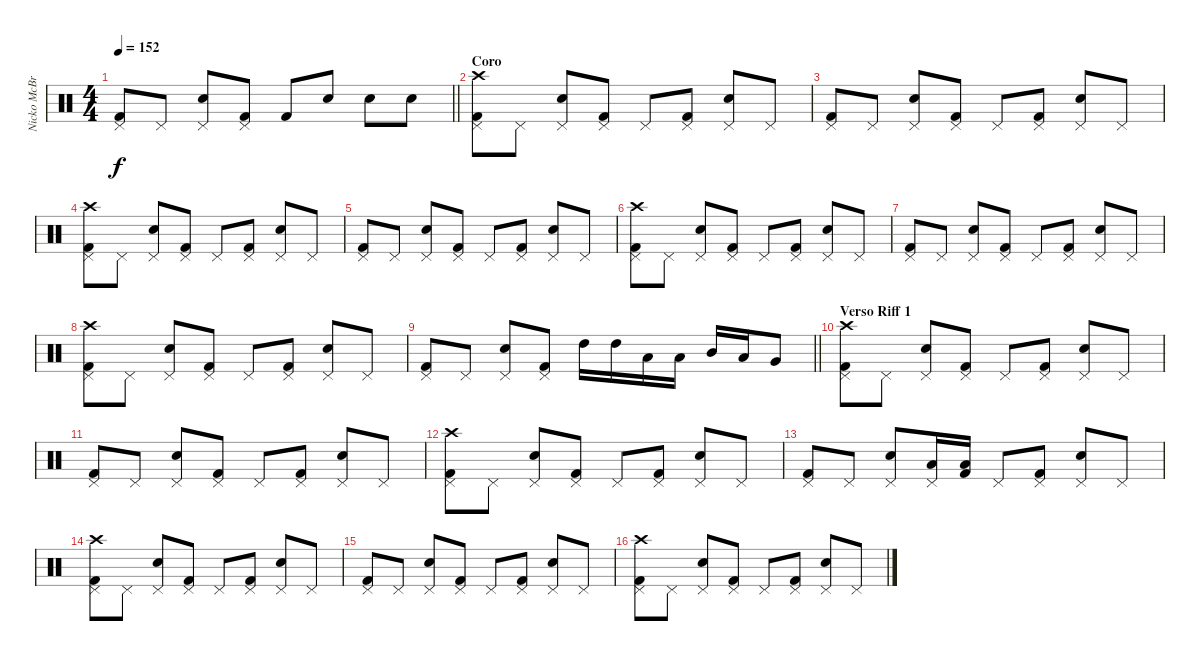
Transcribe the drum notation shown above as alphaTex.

\track ("Nicko McBrain" "Nicko McBr") {instrument percussion}
\staff {score}
\articulation defaults
\ts (4 4)
\tempo 152
\clef neutral
\barLineRight lightlight
\ks c
("Kick (hit) 2" "Pedal Hi-Hat (hit)").8{dy f} "Pedal Hi-Hat (hit)".8 ("Snare (hit) 2" "Pedal Hi-Hat (hit)").8 ("Kick (hit) 2" "Pedal Hi-Hat (hit)").8 "Kick (hit) 2".8 "Snare (hit) 2".8 "Snare (hit) 2".8 "Snare (hit) 2".8 |
\section ("" "Coro")
("Kick (hit) 2" "Pedal Hi-Hat (hit)" "Crash high (hit)").8 "Pedal Hi-Hat (hit)".8 ("Snare (hit) 2" "Pedal Hi-Hat (hit)").8 ("Kick (hit) 2" "Pedal Hi-Hat (hit)").8 "Pedal Hi-Hat (hit)".8 ("Kick (hit) 2" "Pedal Hi-Hat (hit)").8 ("Snare (hit) 2" "Pedal Hi-Hat (hit)").8 "Pedal Hi-Hat (hit)".8 |
("Kick (hit) 2" "Pedal Hi-Hat (hit)").8 "Pedal Hi-Hat (hit)".8 ("Snare (hit) 2" "Pedal Hi-Hat (hit)").8 ("Kick (hit) 2" "Pedal Hi-Hat (hit)").8 "Pedal Hi-Hat (hit)".8 ("Kick (hit) 2" "Pedal Hi-Hat (hit)").8 ("Snare (hit) 2" "Pedal Hi-Hat (hit)").8 "Pedal Hi-Hat (hit)".8 |
("Kick (hit) 2" "Pedal Hi-Hat (hit)" "Crash high (hit)").8 "Pedal Hi-Hat (hit)".8 ("Snare (hit) 2" "Pedal Hi-Hat (hit)").8 ("Kick (hit) 2" "Pedal Hi-Hat (hit)").8 "Pedal Hi-Hat (hit)".8 ("Kick (hit) 2" "Pedal Hi-Hat (hit)").8 ("Snare (hit) 2" "Pedal Hi-Hat (hit)").8 "Pedal Hi-Hat (hit)".8 |
("Kick (hit) 2" "Pedal Hi-Hat (hit)").8 "Pedal Hi-Hat (hit)".8 ("Snare (hit) 2" "Pedal Hi-Hat (hit)").8 ("Kick (hit) 2" "Pedal Hi-Hat (hit)").8 "Pedal Hi-Hat (hit)".8 ("Kick (hit) 2" "Pedal Hi-Hat (hit)").8 ("Snare (hit) 2" "Pedal Hi-Hat (hit)").8 "Pedal Hi-Hat (hit)".8 |
("Kick (hit) 2" "Pedal Hi-Hat (hit)" "Crash high (hit)").8 "Pedal Hi-Hat (hit)".8 ("Snare (hit) 2" "Pedal Hi-Hat (hit)").8 ("Kick (hit) 2" "Pedal Hi-Hat (hit)").8 "Pedal Hi-Hat (hit)".8 ("Kick (hit) 2" "Pedal Hi-Hat (hit)").8 ("Snare (hit) 2" "Pedal Hi-Hat (hit)").8 "Pedal Hi-Hat (hit)".8 |
("Kick (hit) 2" "Pedal Hi-Hat (hit)").8 "Pedal Hi-Hat (hit)".8 ("Snare (hit) 2" "Pedal Hi-Hat (hit)").8 ("Kick (hit) 2" "Pedal Hi-Hat (hit)").8 "Pedal Hi-Hat (hit)".8 ("Kick (hit) 2" "Pedal Hi-Hat (hit)").8 ("Snare (hit) 2" "Pedal Hi-Hat (hit)").8 "Pedal Hi-Hat (hit)".8 |
("Kick (hit) 2" "Pedal Hi-Hat (hit)" "Crash high (hit)").8 "Pedal Hi-Hat (hit)".8 ("Snare (hit) 2" "Pedal Hi-Hat (hit)").8 ("Kick (hit) 2" "Pedal Hi-Hat (hit)").8 "Pedal Hi-Hat (hit)".8 ("Kick (hit) 2" "Pedal Hi-Hat (hit)").8 ("Snare (hit) 2" "Pedal Hi-Hat (hit)").8 "Pedal Hi-Hat (hit)".8 |
\barLineRight lightlight
("Kick (hit) 2" "Pedal Hi-Hat (hit)").8 "Pedal Hi-Hat (hit)".8 ("Snare (hit) 2" "Pedal Hi-Hat (hit)").8 ("Kick (hit) 2" "Pedal Hi-Hat (hit)").8 "High Tom (hit)".16 "High Tom (hit)".16 "Low Tom (hit)".16 "Low Tom (hit)".16 "Mid Tom (hit)".16 "Low Tom (hit)".16 "Very Low Tom (hit)".8 |
\section ("" "Verso Riff 1")
("Kick (hit) 2" "Pedal Hi-Hat (hit)" "Crash high (hit)").8 "Pedal Hi-Hat (hit)".8 ("Snare (hit) 2" "Pedal Hi-Hat (hit)").8 ("Kick (hit) 2" "Pedal Hi-Hat (hit)").8 "Pedal Hi-Hat (hit)".8 ("Kick (hit) 2" "Pedal Hi-Hat (hit)").8 ("Snare (hit) 2" "Pedal Hi-Hat (hit)").8 "Pedal Hi-Hat (hit)".8 |
("Kick (hit) 2" "Pedal Hi-Hat (hit)").8 "Pedal Hi-Hat (hit)".8 ("Snare (hit) 2" "Pedal Hi-Hat (hit)").8 ("Kick (hit) 2" "Pedal Hi-Hat (hit)").8 "Pedal Hi-Hat (hit)".8 ("Kick (hit) 2" "Pedal Hi-Hat (hit)").8 ("Snare (hit) 2" "Pedal Hi-Hat (hit)").8 "Pedal Hi-Hat (hit)".8 |
("Kick (hit) 2" "Pedal Hi-Hat (hit)" "Crash high (hit)").8 "Pedal Hi-Hat (hit)".8 ("Snare (hit) 2" "Pedal Hi-Hat (hit)").8 ("Kick (hit) 2" "Pedal Hi-Hat (hit)").8 "Pedal Hi-Hat (hit)".8 ("Kick (hit) 2" "Pedal Hi-Hat (hit)").8 ("Snare (hit) 2" "Pedal Hi-Hat (hit)").8 "Pedal Hi-Hat (hit)".8 |
("Kick (hit) 2" "Pedal Hi-Hat (hit)").8 "Pedal Hi-Hat (hit)".8 ("Snare (hit) 2" "Pedal Hi-Hat (hit)").8 ("Low Tom (hit)" "Pedal Hi-Hat (hit)").16 ("Low Tom (hit)" "Kick (hit) 2").16 "Pedal Hi-Hat (hit)".8 ("Kick (hit) 2" "Pedal Hi-Hat (hit)").8 ("Snare (hit) 2" "Pedal Hi-Hat (hit)").8 "Pedal Hi-Hat (hit)".8 |
("Kick (hit) 2" "Pedal Hi-Hat (hit)" "Crash high (hit)").8 "Pedal Hi-Hat (hit)".8 ("Snare (hit) 2" "Pedal Hi-Hat (hit)").8 ("Kick (hit) 2" "Pedal Hi-Hat (hit)").8 "Pedal Hi-Hat (hit)".8 ("Kick (hit) 2" "Pedal Hi-Hat (hit)").8 ("Snare (hit) 2" "Pedal Hi-Hat (hit)").8 "Pedal Hi-Hat (hit)".8 |
("Kick (hit) 2" "Pedal Hi-Hat (hit)").8 "Pedal Hi-Hat (hit)".8 ("Snare (hit) 2" "Pedal Hi-Hat (hit)").8 ("Kick (hit) 2" "Pedal Hi-Hat (hit)").8 "Pedal Hi-Hat (hit)".8 ("Kick (hit) 2" "Pedal Hi-Hat (hit)").8 ("Snare (hit) 2" "Pedal Hi-Hat (hit)").8 "Pedal Hi-Hat (hit)".8 |
("Kick (hit) 2" "Pedal Hi-Hat (hit)" "Crash high (hit)").8 "Pedal Hi-Hat (hit)".8 ("Snare (hit) 2" "Pedal Hi-Hat (hit)").8 ("Kick (hit) 2" "Pedal Hi-Hat (hit)").8 "Pedal Hi-Hat (hit)".8 ("Kick (hit) 2" "Pedal Hi-Hat (hit)").8 ("Snare (hit) 2" "Pedal Hi-Hat (hit)").8 "Pedal Hi-Hat (hit)".8
